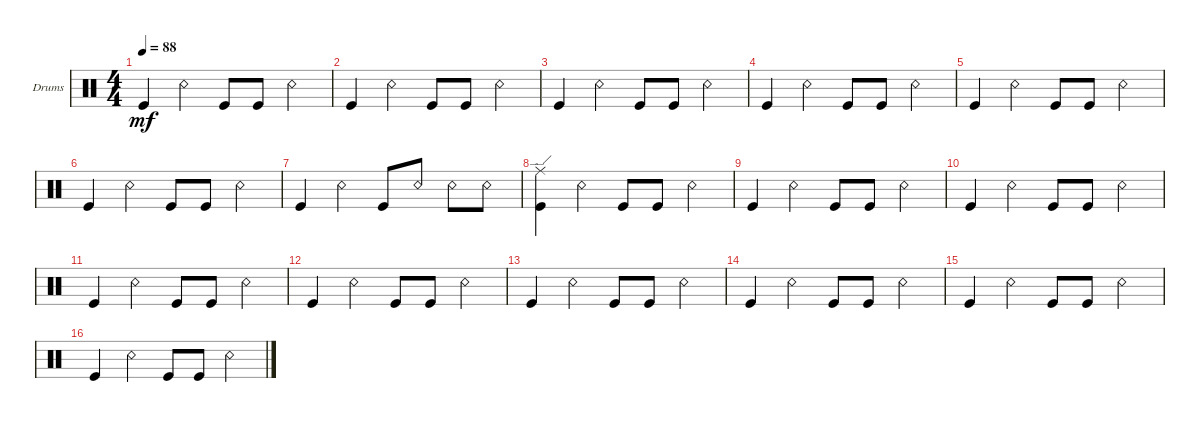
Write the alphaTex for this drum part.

\bracketExtendMode groupsimilarinstruments
\firstSystemTrackNameOrientation horizontal
\otherSystemsTrackNameOrientation horizontal
\track ("Drumkit" "Drums") {instrument percussion}
\staff {score}
\articulation defaults
\ts (4 4)
\tempo 88
\clef neutral
\scale
0.333333
\ks c "Kick (hit)".4{dy mf} "Snare (rim shot)".4 "Kick (hit)".8 "Kick (hit)".8 "Snare (rim shot)".4
|
\scale
0.333333 "Kick (hit)".4 "Snare (rim shot)".4 "Kick (hit)".8 "Kick (hit)".8 "Snare (rim shot)".4 |
\scale
0.333333 "Kick (hit)".4 "Snare (rim shot)".4 "Kick (hit)".8 "Kick (hit)".8 "Snare (rim shot)".4 |
\scale
0.333333 "Kick (hit)".4 "Snare (rim shot)".4 "Kick (hit)".8 "Kick (hit)".8 "Snare (rim shot)".4 |
\scale
0.333333 "Kick (hit)".4 "Snare (rim shot)".4 "Kick (hit)".8 "Kick (hit)".8 "Snare (rim shot)".4 |
\scale
0.333333 "Kick (hit)".4 "Snare (rim shot)".4 "Kick (hit)".8 "Kick (hit)".8 "Snare (rim shot)".4 |
\scale
0.333333 "Kick (hit)".4 "Snare (rim shot)".4 "Kick (hit)".8 "Snare (rim shot)".8 "Snare (rim shot)".8 "Snare (rim shot)".8 |
\scale
0.333333 ("Kick (hit)" "Ride (edge)").4 "Snare (rim shot)".4 "Kick (hit)".8 "Kick (hit)".8 "Snare (rim shot)".4 |
\scale
0.333333 "Kick (hit)".4 "Snare (rim shot)".4 "Kick (hit)".8 "Kick (hit)".8 "Snare (rim shot)".4 |
\scale
0.333333 "Kick (hit)".4 "Snare (rim shot)".4 "Kick (hit)".8 "Kick (hit)".8 "Snare (rim shot)".4 |
\scale
0.333333 "Kick (hit)".4 "Snare (rim shot)".4 "Kick (hit)".8 "Kick (hit)".8 "Snare (rim shot)".4 |
\scale
0.333333 "Kick (hit)".4 "Snare (rim shot)".4 "Kick (hit)".8 "Kick (hit)".8 "Snare (rim shot)".4 |
\scale
0.333333 "Kick (hit)".4 "Snare (rim shot)".4 "Kick (hit)".8 "Kick (hit)".8 "Snare (rim shot)".4 |
\scale
0.333333 "Kick (hit)".4 "Snare (rim shot)".4 "Kick (hit)".8 "Kick (hit)".8 "Snare (rim shot)".4 |
\scale
0.333333 "Kick (hit)".4 "Snare (rim shot)".4 "Kick (hit)".8 "Kick (hit)".8 "Snare (rim shot)".4 |
\scale
0.333333 "Kick (hit)".4 "Snare (rim shot)".4 "Kick (hit)".8 "Kick (hit)".8 "Snare (rim shot)".4
